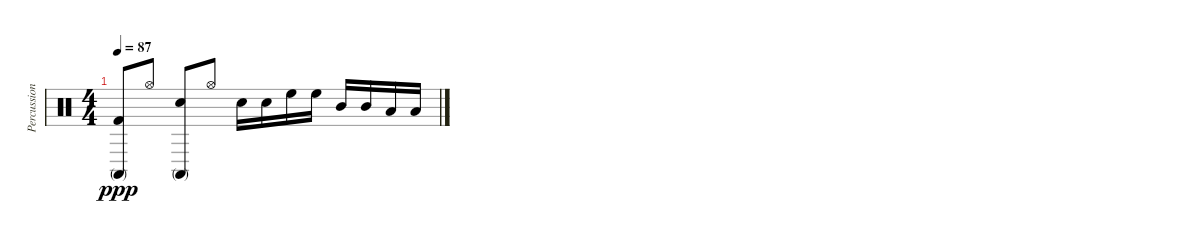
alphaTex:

\track ("Percussions" "Percussion") {instrument percussion}
\staff {score}
\articulation defaults
\ts (4 4)
\tempo 87
\clef neutral
\ks c
("Conga high (mute)" "Kick (hit) 2").8{dy ppp} "Hi-Hat (open)".8 ("Conga high (mute)" "Snare (hit) 2").8 "Hi-Hat (open)".8 "Snare (hit) 2".16 "Snare (hit) 2".16 "High Floor Tom (hit)".16 "High Floor Tom (hit)".16 "Mid Tom (hit)".16 "Mid Tom (hit)".16 "Low Tom (hit)".16 "Low Floor Tom (hit)".16
